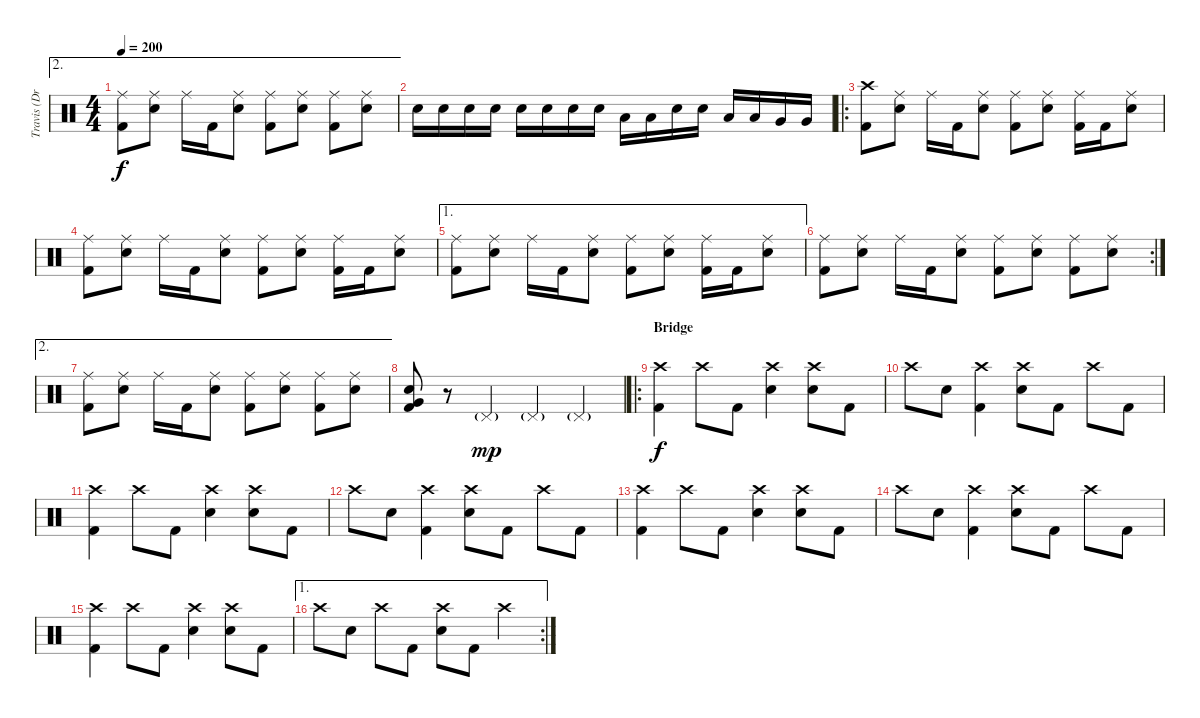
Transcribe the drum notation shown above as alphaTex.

\track ("Travis (Drums)" "Travis (Dr") {instrument percussion}
\staff {score}
\articulation defaults
\ae 2
\ts (4 4)
\tempo 200
\clef neutral
\ks c
("Ride (middle)" "Kick (hit) 2").8{dy f} ("Ride (middle)" "Electric Snare (hit)").8 "Ride (middle)".16 "Kick (hit) 2".16 ("Ride (middle)" "Electric Snare (hit)").8 ("Ride (middle)" "Kick (hit) 2").8 ("Ride (middle)" "Electric Snare (hit)").8 ("Ride (middle)" "Kick (hit) 2").8 ("Ride (middle)" "Electric Snare (hit)").8 |
"Electric Snare (hit)".16 "Electric Snare (hit)".16 "Electric Snare (hit)".16 "Electric Snare (hit)".16 "Electric Snare (hit)".16 "Electric Snare (hit)".16 "Electric Snare (hit)".16 "Electric Snare (hit)".16 "Low Tom (hit)".16 "Low Tom (hit)".16 "Electric Snare (hit)".16 "Electric Snare (hit)".16 "Low Tom (hit)".16 "Low Tom (hit)".16 "Very Low Tom (hit)".16 "Very Low Tom (hit)".16 |
\ro
("Crash high (hit)" "Kick (hit) 2").8 ("Ride (middle)" "Electric Snare (hit)").8 "Ride (middle)".16 "Kick (hit) 2".16 ("Ride (middle)" "Electric Snare (hit)").8 ("Ride (middle)" "Kick (hit) 2").8 ("Ride (middle)" "Electric Snare (hit)").8 ("Ride (middle)" "Kick (hit) 2").16 "Kick (hit) 2".16 ("Ride (middle)" "Electric Snare (hit)").8 |
("Ride (middle)" "Kick (hit) 2").8 ("Ride (middle)" "Electric Snare (hit)").8 "Ride (middle)".16 "Kick (hit) 2".16 ("Ride (middle)" "Electric Snare (hit)").8 ("Ride (middle)" "Kick (hit) 2").8 ("Ride (middle)" "Electric Snare (hit)").8 ("Ride (middle)" "Kick (hit) 2").16 "Kick (hit) 2".16 ("Ride (middle)" "Electric Snare (hit)").8 |
\ae 1
("Ride (middle)" "Kick (hit) 2").8 ("Ride (middle)" "Electric Snare (hit)").8 "Ride (middle)".16 "Kick (hit) 2".16 ("Ride (middle)" "Electric Snare (hit)").8 ("Ride (middle)" "Kick (hit) 2").8 ("Ride (middle)" "Electric Snare (hit)").8 ("Ride (middle)" "Kick (hit) 2").16 "Kick (hit) 2".16 ("Ride (middle)" "Electric Snare (hit)").8 |
\rc 2
("Ride (middle)" "Kick (hit) 2").8 ("Ride (middle)" "Electric Snare (hit)").8 "Ride (middle)".16 "Kick (hit) 2".16 ("Ride (middle)" "Electric Snare (hit)").8 ("Ride (middle)" "Kick (hit) 2").8 ("Ride (middle)" "Electric Snare (hit)").8 ("Ride (middle)" "Kick (hit) 2").8 ("Ride (middle)" "Electric Snare (hit)").8 |
\ae 2
("Ride (middle)" "Kick (hit) 2").8 ("Ride (middle)" "Electric Snare (hit)").8 "Ride (middle)".16 "Kick (hit) 2".16 ("Ride (middle)" "Electric Snare (hit)").8 ("Ride (middle)" "Kick (hit) 2").8 ("Ride (middle)" "Electric Snare (hit)").8 ("Ride (middle)" "Kick (hit) 2").8 ("Ride (middle)" "Electric Snare (hit)").8 |
("Very Low Tom (hit)" "Electric Snare (hit)" "Kick (hit) 2").8 r.8 "Pedal Hi-Hat (hit)"{g}.4{dy mp} "Pedal Hi-Hat (hit)"{g}.4 "Pedal Hi-Hat (hit)"{g}.4 |
\ro
\section ("" "Bridge")
("Crash high (hit)" "Kick (hit) 2").4{dy f} "Crash high (hit)".8 "Kick (hit) 2".8 ("Crash high (hit)" "Electric Snare (hit)").4 ("Crash high (hit)" "Electric Snare (hit)").8 "Kick (hit) 2".8 |
"Crash high (hit)".8 "Electric Snare (hit)".8 ("Crash high (hit)" "Kick (hit) 2").4 ("Crash high (hit)" "Electric Snare (hit)").8 "Kick (hit) 2".8 "Crash high (hit)".8 "Kick (hit) 2".8 |
("Crash high (hit)" "Kick (hit) 2").4 "Crash high (hit)".8 "Kick (hit) 2".8 ("Crash high (hit)" "Electric Snare (hit)").4 ("Crash high (hit)" "Electric Snare (hit)").8 "Kick (hit) 2".8 |
"Crash high (hit)".8 "Electric Snare (hit)".8 ("Crash high (hit)" "Kick (hit) 2").4 ("Crash high (hit)" "Electric Snare (hit)").8 "Kick (hit) 2".8 "Crash high (hit)".8 "Kick (hit) 2".8 |
("Crash high (hit)" "Kick (hit) 2").4 "Crash high (hit)".8 "Kick (hit) 2".8 ("Crash high (hit)" "Electric Snare (hit)").4 ("Crash high (hit)" "Electric Snare (hit)").8 "Kick (hit) 2".8 |
"Crash high (hit)".8 "Electric Snare (hit)".8 ("Crash high (hit)" "Kick (hit) 2").4 ("Crash high (hit)" "Electric Snare (hit)").8 "Kick (hit) 2".8 "Crash high (hit)".8 "Kick (hit) 2".8 |
("Crash high (hit)" "Kick (hit) 2").4 "Crash high (hit)".8 "Kick (hit) 2".8 ("Crash high (hit)" "Electric Snare (hit)").4 ("Crash high (hit)" "Electric Snare (hit)").8 "Kick (hit) 2".8 |
\ae 1
\rc 2 "Crash high (hit)".8 "Electric Snare (hit)".8 "Crash high (hit)".8 "Kick (hit) 2".8
("Crash high (hit)" "Electric Snare (hit)").8 "Kick (hit) 2".8 "Crash high (hit)".4
